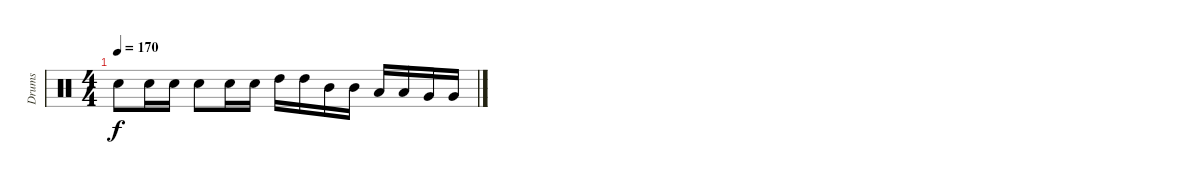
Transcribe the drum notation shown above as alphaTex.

\track ("Drums" "Drums") {instrument percussion}
\staff {score}
\articulation defaults
\ts (4 4)
\tempo 170
\clef neutral
\ks c "Electric Snare (hit)".8{dy f} "Electric Snare (hit)".16 "Electric Snare (hit)".16 "Electric Snare (hit)".8 "Electric Snare (hit)".16 "Electric Snare (hit)".16 "High Tom (hit)".16 "High Tom (hit)".16 "Mid Tom (hit)".16 "Mid Tom (hit)".16 "Low Tom (hit)".16 "Low Tom (hit)".16 "Very Low Tom (hit)".16 "Very Low Tom (hit)".16
